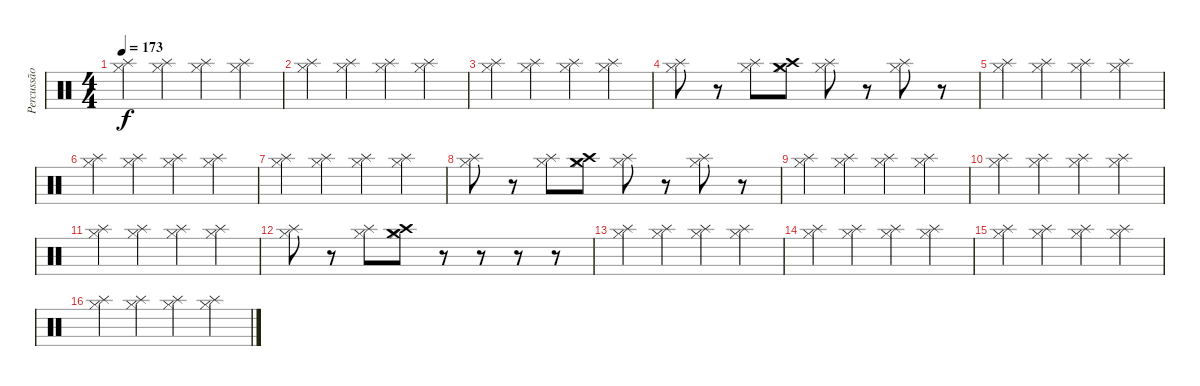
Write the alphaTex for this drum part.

\track ("Percussão" "Percussão") {instrument percussion}
\staff {score}
\articulation defaults
\ts (4 4)
\tempo 173
\clef neutral
\ks c
("Splash (hit)" "Hi-Hat (closed)").4{dy f} ("Splash (hit)" "Hi-Hat (closed)").4 ("Splash (hit)" "Hi-Hat (closed)").4 ("Splash (hit)" "Hi-Hat (closed)").4 |
("Splash (hit)" "Hi-Hat (closed)").4 ("Splash (hit)" "Hi-Hat (closed)").4 ("Splash (hit)" "Hi-Hat (closed)").4 ("Splash (hit)" "Hi-Hat (closed)").4 |
("Splash (hit)" "Hi-Hat (closed)").4 ("Splash (hit)" "Hi-Hat (closed)").4 ("Splash (hit)" "Hi-Hat (closed)").4 ("Splash (hit)" "Hi-Hat (closed)").4 |
("Splash (hit)" "Hi-Hat (closed)").8 r.8 ("Splash (hit)" "Hi-Hat (closed)").8 ("Crash high (hit)" "Crash medium (hit)" "Hi-Hat (closed)").8 ("Splash (hit)" "Hi-Hat (closed)").8 r.8 ("Splash (hit)" "Hi-Hat (closed)").8 r.8 |
("Splash (hit)" "Hi-Hat (closed)").4 ("Splash (hit)" "Hi-Hat (closed)").4 ("Splash (hit)" "Hi-Hat (closed)").4 ("Splash (hit)" "Hi-Hat (closed)").4 |
("Splash (hit)" "Hi-Hat (closed)").4 ("Splash (hit)" "Hi-Hat (closed)").4 ("Splash (hit)" "Hi-Hat (closed)").4 ("Splash (hit)" "Hi-Hat (closed)").4 |
("Splash (hit)" "Hi-Hat (closed)").4 ("Splash (hit)" "Hi-Hat (closed)").4 ("Splash (hit)" "Hi-Hat (closed)").4 ("Splash (hit)" "Hi-Hat (closed)").4 |
("Splash (hit)" "Hi-Hat (closed)").8 r.8 ("Splash (hit)" "Hi-Hat (closed)").8 ("Crash high (hit)" "Crash medium (hit)" "Hi-Hat (closed)").8 ("Splash (hit)" "Hi-Hat (closed)").8 r.8 ("Splash (hit)" "Hi-Hat (closed)").8 r.8 |
("Splash (hit)" "Hi-Hat (closed)").4 ("Splash (hit)" "Hi-Hat (closed)").4 ("Splash (hit)" "Hi-Hat (closed)").4 ("Splash (hit)" "Hi-Hat (closed)").4 |
("Splash (hit)" "Hi-Hat (closed)").4 ("Splash (hit)" "Hi-Hat (closed)").4 ("Splash (hit)" "Hi-Hat (closed)").4 ("Splash (hit)" "Hi-Hat (closed)").4 |
("Splash (hit)" "Hi-Hat (closed)").4 ("Splash (hit)" "Hi-Hat (closed)").4 ("Splash (hit)" "Hi-Hat (closed)").4 ("Splash (hit)" "Hi-Hat (closed)").4 |
("Splash (hit)" "Hi-Hat (closed)").8 r.8 ("Splash (hit)" "Hi-Hat (closed)").8 ("Crash high (hit)" "Crash medium (hit)" "Hi-Hat (closed)").8 r.8 r.8 r.8 r.8 |
("Splash (hit)" "Hi-Hat (closed)").4 ("Splash (hit)" "Hi-Hat (closed)").4 ("Splash (hit)" "Hi-Hat (closed)").4 ("Splash (hit)" "Hi-Hat (closed)").4 |
("Splash (hit)" "Hi-Hat (closed)").4 ("Splash (hit)" "Hi-Hat (closed)").4 ("Splash (hit)" "Hi-Hat (closed)").4 ("Splash (hit)" "Hi-Hat (closed)").4 |
("Splash (hit)" "Hi-Hat (closed)").4 ("Splash (hit)" "Hi-Hat (closed)").4 ("Splash (hit)" "Hi-Hat (closed)").4 ("Splash (hit)" "Hi-Hat (closed)").4 |
("Splash (hit)" "Hi-Hat (closed)").4 ("Splash (hit)" "Hi-Hat (closed)").4 ("Splash (hit)" "Hi-Hat (closed)").4 ("Splash (hit)" "Hi-Hat (closed)").4
